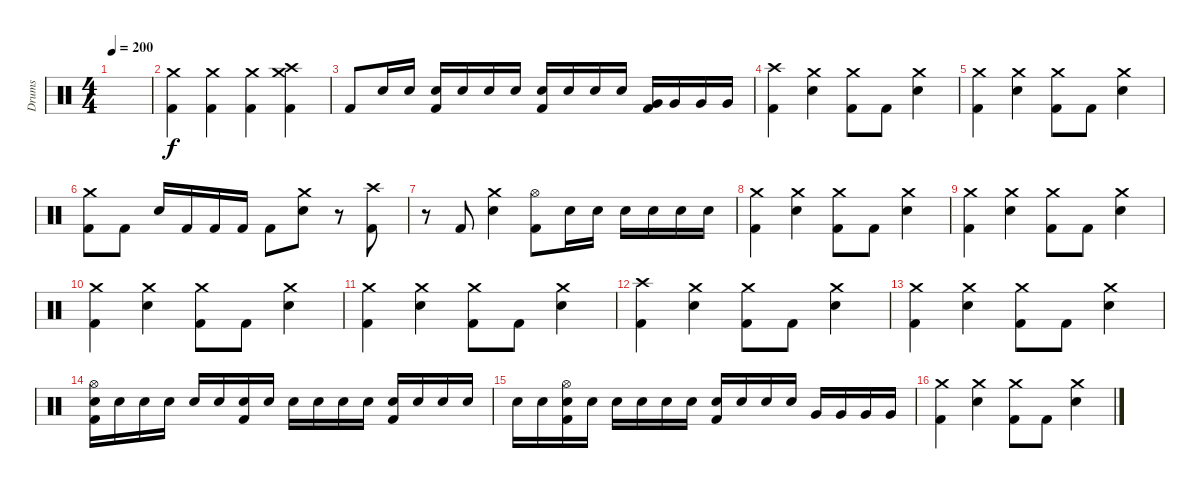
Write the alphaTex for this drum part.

\track ("Drums" "Drums") {instrument percussion}
\staff {score}
\articulation defaults
\ts (4 4)
\tempo 200
\clef neutral
\ks c
|
("Crash medium (hit)" "Kick (hit) 2").4 ("Crash medium (hit)" "Kick (hit) 2").4 ("Crash medium (hit)" "Kick (hit) 2").4 ("Crash medium (hit)" "Crash high (hit)" "Kick (hit) 2").4 |
"Kick (hit) 2".8 "Snare (hit) 2".16 "Snare (hit) 2".16 ("Snare (hit) 2" "Kick (hit) 2").16 "Snare (hit) 2".16 "Snare (hit) 2".16 "Snare (hit) 2".16 ("Snare (hit) 2" "Kick (hit) 2").16 "Snare (hit) 2".16 "Snare (hit) 2".16 "Snare (hit) 2".16 ("Very Low Tom (hit)" "Kick (hit) 2").16 "Very Low Tom (hit)".16 "Very Low Tom (hit)".16 "Very Low Tom (hit)".16 |
("Crash high (hit)" "Kick (hit) 2").4 ("Crash medium (hit)" "Snare (hit) 2").4 ("Crash medium (hit)" "Kick (hit) 2").8 "Kick (hit) 2".8 ("Crash medium (hit)" "Snare (hit) 2").4 |
("Crash medium (hit)" "Kick (hit) 2").4 ("Crash medium (hit)" "Snare (hit) 2").4 ("Crash medium (hit)" "Kick (hit) 2").8 "Kick (hit) 2".8 ("Crash medium (hit)" "Snare (hit) 2").4 |
("Crash medium (hit)" "Kick (hit) 2").8 "Kick (hit) 2".8 "Snare (hit) 2".16 "Kick (hit) 2".16 "Kick (hit) 2".16 "Kick (hit) 2".16 "Kick (hit) 2".8 ("Crash medium (hit)" "Snare (hit) 2").8 r.8 ("Crash high (hit)" "Kick (hit) 2").8 |
r.8 "Kick (hit) 2".8 ("Crash medium (hit)" "Snare (hit) 2").4 ("Hi-Hat (open)" "Kick (hit) 2").8 "Snare (hit) 2".16 "Snare (hit) 2".16 "Snare (hit) 2".16 "Snare (hit) 2".16 "Snare (hit) 2".16 "Snare (hit) 2".16 |
("Crash medium (hit)" "Kick (hit) 2").4 ("Crash medium (hit)" "Snare (hit) 2").4 ("Crash medium (hit)" "Kick (hit) 2").8 "Kick (hit) 2".8 ("Crash medium (hit)" "Snare (hit) 2").4 |
("Crash medium (hit)" "Kick (hit) 2").4 ("Crash medium (hit)" "Snare (hit) 2").4 ("Crash medium (hit)" "Kick (hit) 2").8 "Kick (hit) 2".8 ("Crash medium (hit)" "Snare (hit) 2").4 |
("Crash medium (hit)" "Kick (hit) 2").4 ("Crash medium (hit)" "Snare (hit) 2").4 ("Crash medium (hit)" "Kick (hit) 2").8 "Kick (hit) 2".8 ("Crash medium (hit)" "Snare (hit) 2").4 |
("Crash medium (hit)" "Kick (hit) 2").4 ("Crash medium (hit)" "Snare (hit) 2").4 ("Crash medium (hit)" "Kick (hit) 2").8 "Kick (hit) 2".8 ("Crash medium (hit)" "Snare (hit) 2").4 |
("Crash high (hit)" "Kick (hit) 2").4 ("Crash medium (hit)" "Snare (hit) 2").4 ("Crash medium (hit)" "Kick (hit) 2").8 "Kick (hit) 2".8 ("Crash medium (hit)" "Snare (hit) 2").4 |
("Crash medium (hit)" "Kick (hit) 2").4 ("Crash medium (hit)" "Snare (hit) 2").4 ("Crash medium (hit)" "Kick (hit) 2").8 "Kick (hit) 2".8 ("Crash medium (hit)" "Snare (hit) 2").4 |
("Hi-Hat (open)" "Snare (hit) 2" "Kick (hit) 2").16 "Snare (hit) 2".16 "Snare (hit) 2".16 "Snare (hit) 2".16 "Snare (hit) 2".16 "Snare (hit) 2".16 ("Snare (hit) 2" "Kick (hit) 2").16 "Snare (hit) 2".16 "Snare (hit) 2".16 "Snare (hit) 2".16 "Snare (hit) 2".16 "Snare (hit) 2".16 ("Snare (hit) 2" "Kick (hit) 2").16 "Snare (hit) 2".16 "Snare (hit) 2".16 "Snare (hit) 2".16 |
"Snare (hit) 2".16 "Snare (hit) 2".16 ("Hi-Hat (open)" "Snare (hit) 2" "Kick (hit) 2").16 "Snare (hit) 2".16 "Snare (hit) 2".16 "Snare (hit) 2".16 "Snare (hit) 2".16 "Snare (hit) 2".16 ("Snare (hit) 2" "Kick (hit) 2").16 "Snare (hit) 2".16 "Snare (hit) 2".16 "Snare (hit) 2".16 "Very Low Tom (hit)".16 "Very Low Tom (hit)".16 "Very Low Tom (hit)".16 "Very Low Tom (hit)".16 |
("Crash medium (hit)" "Kick (hit) 2").4 ("Crash medium (hit)" "Snare (hit) 2").4 ("Crash medium (hit)" "Kick (hit) 2").8 "Kick (hit) 2".8 ("Crash medium (hit)" "Snare (hit) 2").4
